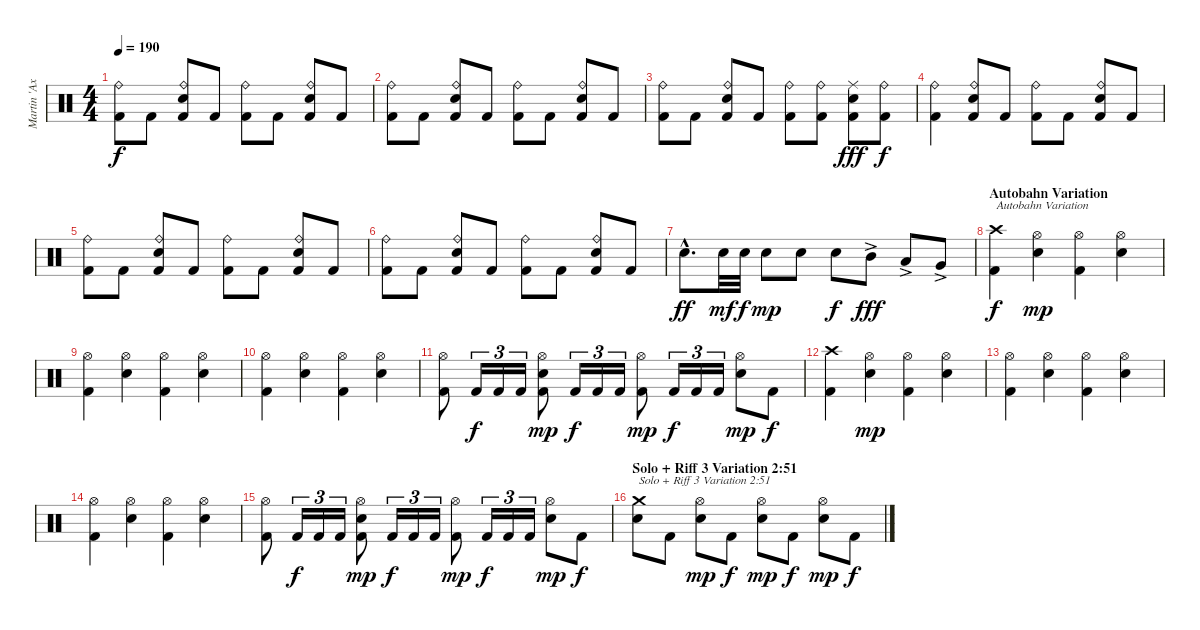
\track ("Martin 'Axe' Axenroth" "Martin 'Ax") {instrument percussion}
\staff {score}
\articulation defaults
\ts (4 4)
\tempo 190
\clef neutral
\ks c
("Kick (hit) 2" "Ride (bell)").8{dy f} "Kick (hit) 2".8 ("Kick (hit) 2" "Electric Snare (hit)" "Ride (bell)").8 "Kick (hit) 2".8 ("Kick (hit) 2" "Ride (bell)").8 "Kick (hit) 2".8 ("Kick (hit) 2" "Electric Snare (hit)" "Ride (bell)").8 "Kick (hit) 2".8 |
("Kick (hit) 2" "Ride (bell)").8 "Kick (hit) 2".8 ("Kick (hit) 2" "Electric Snare (hit)" "Ride (bell)").8 "Kick (hit) 2".8 ("Kick (hit) 2" "Ride (bell)").8 "Kick (hit) 2".8 ("Kick (hit) 2" "Electric Snare (hit)" "Ride (bell)").8 "Kick (hit) 2".8 |
("Kick (hit) 2" "Ride (bell)").8 "Kick (hit) 2".8 ("Kick (hit) 2" "Electric Snare (hit)" "Ride (bell)").8 "Kick (hit) 2".8 ("Kick (hit) 2" "Ride (bell)").8 ("Kick (hit) 2" "Ride (bell)").8 ("Kick (hit) 2" "Electric Snare (hit)" "Ride (middle)").8{dy fff} ("Kick (hit) 2" "Ride (bell)").8{dy f} |
("Kick (hit) 2" "Ride (bell)").4 ("Kick (hit) 2" "Electric Snare (hit)" "Ride (bell)").8 "Kick (hit) 2".8 ("Kick (hit) 2" "Ride (bell)").8 "Kick (hit) 2".8 ("Kick (hit) 2" "Electric Snare (hit)" "Ride (bell)").8 "Kick (hit) 2".8 |
("Kick (hit) 2" "Ride (bell)").8 "Kick (hit) 2".8 ("Kick (hit) 2" "Electric Snare (hit)" "Ride (bell)").8 "Kick (hit) 2".8 ("Kick (hit) 2" "Ride (bell)").8 "Kick (hit) 2".8 ("Kick (hit) 2" "Electric Snare (hit)" "Ride (bell)").8 "Kick (hit) 2".8 |
("Kick (hit) 2" "Ride (bell)").8 "Kick (hit) 2".8 ("Kick (hit) 2" "Electric Snare (hit)" "Ride (bell)").8 "Kick (hit) 2".8 ("Kick (hit) 2" "Ride (bell)").8 "Kick (hit) 2".8 ("Kick (hit) 2" "Electric Snare (hit)" "Ride (bell)").8 "Kick (hit) 2".8 |
"Electric Snare (hit)"{hac}.8{d dy ff} "Electric Snare (hit)".32{dy mf} "Electric Snare (hit)".32{dy f} "Electric Snare (hit)".8{dy mp} "Electric Snare (hit)".8 "Electric Snare (hit)".8{dy f} "Mid Tom (hit)"{ac}.8{dy fff} "Low Tom (hit)"{ac}.8 "Very Low Tom (hit)"{ac}.8 |
\section ("" "Autobahn Variation")
("Kick (hit) 2" "Crash high (hit)").4{txt "Autobahn Variation" dy f} ("Electric Snare (hit)" "Hi-Hat (open)").4{dy mp} ("Kick (hit) 2" "Hi-Hat (open)").4 ("Electric Snare (hit)" "Hi-Hat (open)").4 |
("Kick (hit) 2" "Hi-Hat (open)").4 ("Electric Snare (hit)" "Hi-Hat (open)").4 ("Kick (hit) 2" "Hi-Hat (open)").4 ("Electric Snare (hit)" "Hi-Hat (open)").4 |
("Kick (hit) 2" "Hi-Hat (open)").4 ("Electric Snare (hit)" "Hi-Hat (open)").4 ("Kick (hit) 2" "Hi-Hat (open)").4 ("Electric Snare (hit)" "Hi-Hat (open)").4 |
("Kick (hit) 2" "Hi-Hat (open)").8 "Kick (hit) 2".16{tu (3 2) dy f} "Kick (hit) 2".16{tu (3 2)} "Kick (hit) 2".16{tu (3 2)} ("Kick (hit) 2" "Electric Snare (hit)" "Hi-Hat (open)").8{dy mp} "Kick (hit) 2".16{tu (3 2) dy f} "Kick (hit) 2".16{tu (3 2)} "Kick (hit) 2".16{tu (3 2)} ("Kick (hit) 2" "Hi-Hat (open)").8{dy mp} "Kick (hit) 2".16{tu (3 2) dy f} "Kick (hit) 2".16{tu (3 2)} "Kick (hit) 2".16{tu (3 2)} ("Electric Snare (hit)" "Hi-Hat (open)").8{dy mp} "Kick (hit) 2".8{dy f} |
("Kick (hit) 2" "Crash high (hit)").4 ("Electric Snare (hit)" "Hi-Hat (open)").4{dy mp} ("Kick (hit) 2" "Hi-Hat (open)").4 ("Electric Snare (hit)" "Hi-Hat (open)").4 |
("Kick (hit) 2" "Hi-Hat (open)").4 ("Electric Snare (hit)" "Hi-Hat (open)").4 ("Kick (hit) 2" "Hi-Hat (open)").4 ("Electric Snare (hit)" "Hi-Hat (open)").4 |
("Kick (hit) 2" "Hi-Hat (open)").4 ("Electric Snare (hit)" "Hi-Hat (open)").4 ("Kick (hit) 2" "Hi-Hat (open)").4 ("Electric Snare (hit)" "Hi-Hat (open)").4 |
("Kick (hit) 2" "Hi-Hat (open)").8 "Kick (hit) 2".16{tu (3 2) dy f} "Kick (hit) 2".16{tu (3 2)} "Kick (hit) 2".16{tu (3 2)} ("Kick (hit) 2" "Electric Snare (hit)" "Hi-Hat (open)").8{dy mp} "Kick (hit) 2".16{tu (3 2) dy f} "Kick (hit) 2".16{tu (3 2)} "Kick (hit) 2".16{tu (3 2)} ("Kick (hit) 2" "Hi-Hat (open)").8{dy mp} "Kick (hit) 2".16{tu (3 2) dy f} "Kick (hit) 2".16{tu (3 2)} "Kick (hit) 2".16{tu (3 2)} ("Electric Snare (hit)" "Hi-Hat (open)").8{dy mp} "Kick (hit) 2".8{dy f} |
\section ("" "Solo + Riff 3 Variation 2:51")
("Electric Snare (hit)" "Crash medium (hit)").8{txt "Solo + Riff 3 Variation 2:51"} "Kick (hit) 2".8 ("Electric Snare (hit)" "Hi-Hat (open)").8{dy mp} "Kick (hit) 2".8{dy f} ("Electric Snare (hit)" "Hi-Hat (open)").8{dy mp} "Kick (hit) 2".8{dy f} ("Electric Snare (hit)" "Hi-Hat (open)").8{dy mp} "Kick (hit) 2".8{dy f}
